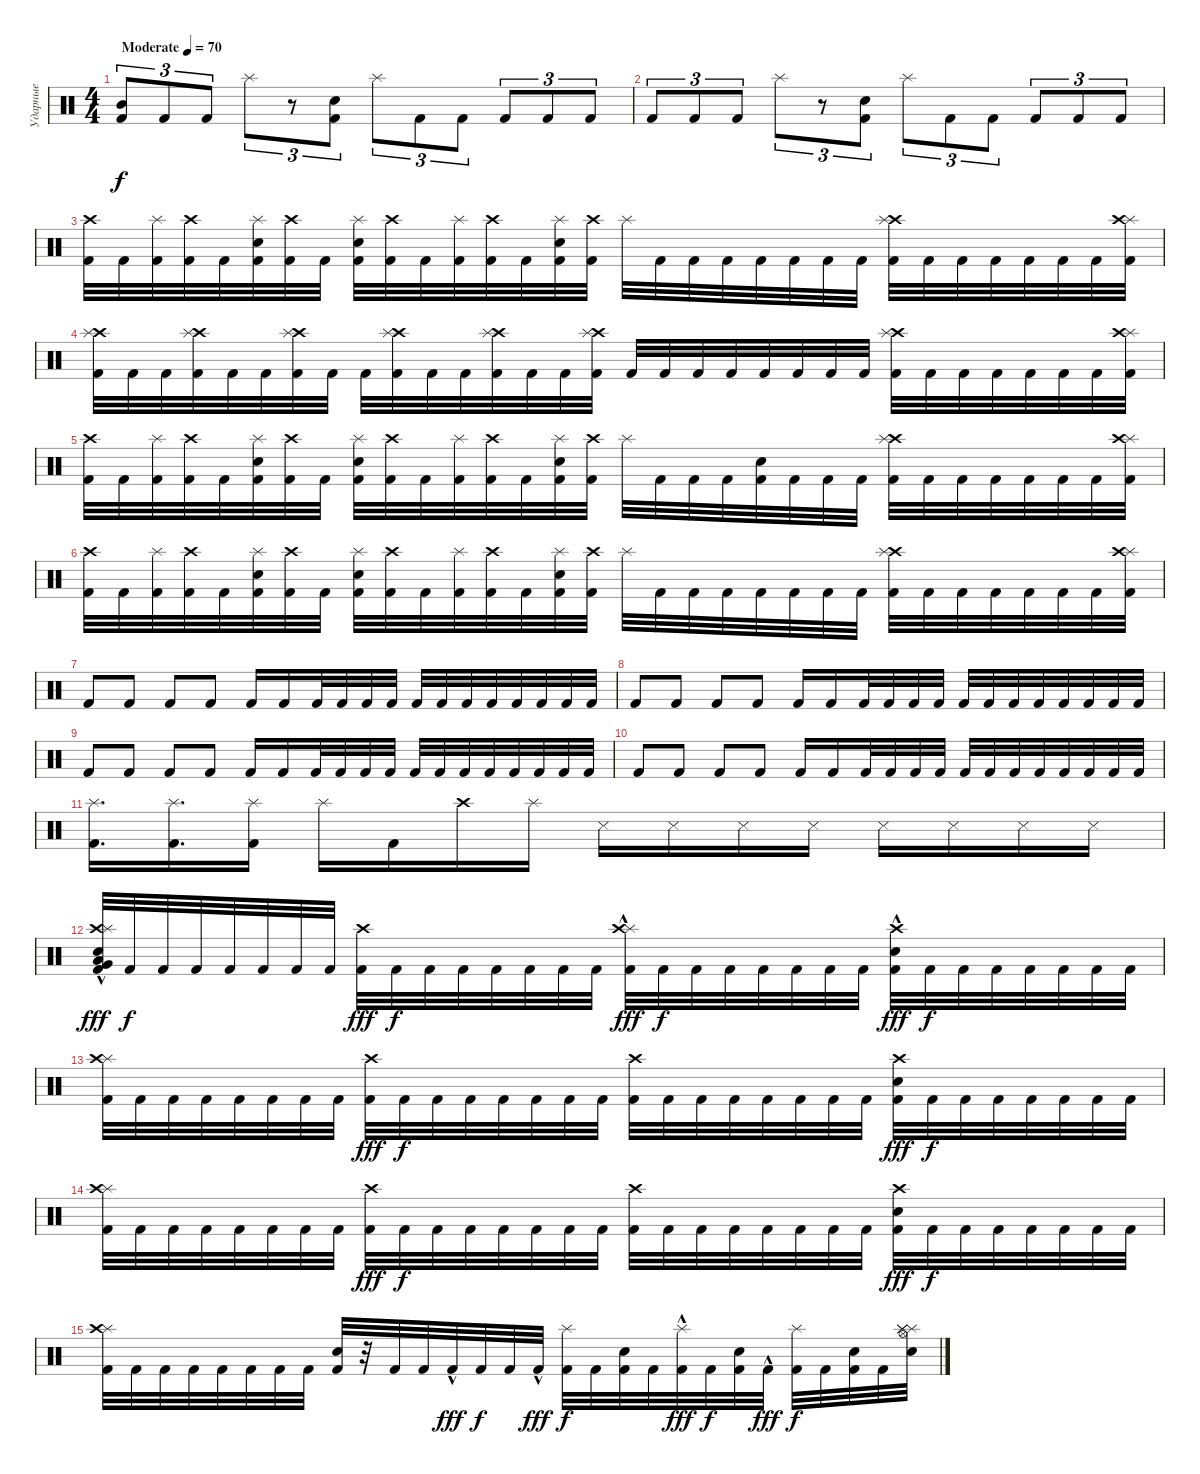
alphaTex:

\track ("Ударные" "Ударные") {instrument percussion}
\staff {score}
\articulation defaults
\ts (4 4)
\tempo (70 "Moderate")
\clef neutral
\ks c
("Mid Tom (hit)" "Kick (hit) 2").8{tu (3 2) dy f} "Kick (hit) 2".8{tu (3 2)} "Kick (hit) 2".8{tu (3 2)} "Splash (hit)".8{tu (3 2)} r.8{tu (3 2)} ("Snare (hit) 2" "Kick (hit) 2").8{tu (3 2)} "Splash (hit)".8{tu (3 2)} "Kick (hit) 2".8{tu (3 2)} "Kick (hit) 2".8{tu (3 2)} "Kick (hit) 2".8{tu (3 2)} "Kick (hit) 2".8{tu (3 2)} "Kick (hit) 2".8{tu (3 2)} |
"Kick (hit) 2".8{tu (3 2)} "Kick (hit) 2".8{tu (3 2)} "Kick (hit) 2".8{tu (3 2)} "Splash (hit)".8{tu (3 2)} r.8{tu (3 2)} ("Snare (hit) 2" "Kick (hit) 2").8{tu (3 2)} "Splash (hit)".8{tu (3 2)} "Kick (hit) 2".8{tu (3 2)} "Kick (hit) 2".8{tu (3 2)} "Kick (hit) 2".8{tu (3 2)} "Kick (hit) 2".8{tu (3 2)} "Kick (hit) 2".8{tu (3 2)} |
("Crash high (hit)" "Kick (hit) 2").32 "Kick (hit) 2".32 ("Splash (hit)" "Kick (hit) 2").32 ("Crash high (hit)" "Kick (hit) 2").32 "Kick (hit) 2".32 ("Splash (hit)" "Snare (hit) 2" "Kick (hit) 2").32 ("Crash high (hit)" "Kick (hit) 2").32 "Kick (hit) 2".32 ("Splash (hit)" "Snare (hit) 2" "Kick (hit) 2").32 ("Crash high (hit)" "Kick (hit) 2").32 "Kick (hit) 2".32 ("Splash (hit)" "Kick (hit) 2").32 ("Crash high (hit)" "Kick (hit) 2").32 "Kick (hit) 2".32 ("Splash (hit)" "Snare (hit) 2" "Kick (hit) 2").32 ("Crash high (hit)" "Kick (hit) 2").32 "Splash (hit)".32 "Kick (hit) 2".32 "Kick (hit) 2".32 "Kick (hit) 2".32 "Kick (hit) 2".32 "Kick (hit) 2".32 "Kick (hit) 2".32 "Kick (hit) 2".32 ("Crash high (hit)" "Splash (hit)" "Kick (hit) 2").32 "Kick (hit) 2".32 "Kick (hit) 2".32 "Kick (hit) 2".32 "Kick (hit) 2".32 "Kick (hit) 2".32 "Kick (hit) 2".32 ("Splash (hit)" "Crash high (hit)" "Kick (hit) 2").32 |
("Crash high (hit)" "Splash (hit)" "Kick (hit) 2").32 "Kick (hit) 2".32 "Kick (hit) 2".32 ("Crash high (hit)" "Splash (hit)" "Kick (hit) 2").32 "Kick (hit) 2".32 "Kick (hit) 2".32 ("Crash high (hit)" "Splash (hit)" "Kick (hit) 2").32 "Kick (hit) 2".32 "Kick (hit) 2".32 ("Crash high (hit)" "Splash (hit)" "Kick (hit) 2").32 "Kick (hit) 2".32 "Kick (hit) 2".32 ("Crash high (hit)" "Splash (hit)" "Kick (hit) 2").32 "Kick (hit) 2".32 "Kick (hit) 2".32 ("Crash high (hit)" "Splash (hit)" "Kick (hit) 2").32 "Kick (hit) 2".32 "Kick (hit) 2".32 "Kick (hit) 2".32 "Kick (hit) 2".32 "Kick (hit) 2".32 "Kick (hit) 2".32 "Kick (hit) 2".32 "Kick (hit) 2".32 ("Crash high (hit)" "Splash (hit)" "Kick (hit) 2").32 "Kick (hit) 2".32 "Kick (hit) 2".32 "Kick (hit) 2".32 "Kick (hit) 2".32 "Kick (hit) 2".32 "Kick (hit) 2".32 ("Splash (hit)" "Crash high (hit)" "Kick (hit) 2").32 |
("Crash high (hit)" "Kick (hit) 2").32 "Kick (hit) 2".32 ("Splash (hit)" "Kick (hit) 2").32 ("Crash high (hit)" "Kick (hit) 2").32 "Kick (hit) 2".32 ("Splash (hit)" "Snare (hit) 2" "Kick (hit) 2").32 ("Crash high (hit)" "Kick (hit) 2").32 "Kick (hit) 2".32 ("Splash (hit)" "Snare (hit) 2" "Kick (hit) 2").32 ("Crash high (hit)" "Kick (hit) 2").32 "Kick (hit) 2".32 ("Splash (hit)" "Kick (hit) 2").32 ("Crash high (hit)" "Kick (hit) 2").32 "Kick (hit) 2".32 ("Splash (hit)" "Snare (hit) 2" "Kick (hit) 2").32 ("Crash high (hit)" "Kick (hit) 2").32 "Splash (hit)".32 "Kick (hit) 2".32 "Kick (hit) 2".32 "Kick (hit) 2".32 ("Snare (hit) 2" "Kick (hit) 2").32 "Kick (hit) 2".32 "Kick (hit) 2".32 "Kick (hit) 2".32 ("Crash high (hit)" "Splash (hit)" "Kick (hit) 2").32 "Kick (hit) 2".32 "Kick (hit) 2".32 "Kick (hit) 2".32 "Kick (hit) 2".32 "Kick (hit) 2".32 "Kick (hit) 2".32 ("Splash (hit)" "Crash high (hit)" "Kick (hit) 2").32 |
("Crash high (hit)" "Kick (hit) 2").32 "Kick (hit) 2".32 ("Splash (hit)" "Kick (hit) 2").32 ("Crash high (hit)" "Kick (hit) 2").32 "Kick (hit) 2".32 ("Splash (hit)" "Snare (hit) 2" "Kick (hit) 2").32 ("Crash high (hit)" "Kick (hit) 2").32 "Kick (hit) 2".32 ("Splash (hit)" "Snare (hit) 2" "Kick (hit) 2").32 ("Crash high (hit)" "Kick (hit) 2").32 "Kick (hit) 2".32 ("Splash (hit)" "Kick (hit) 2").32 ("Crash high (hit)" "Kick (hit) 2").32 "Kick (hit) 2".32 ("Splash (hit)" "Snare (hit) 2" "Kick (hit) 2").32 ("Crash high (hit)" "Kick (hit) 2").32 "Splash (hit)".32 "Kick (hit) 2".32 "Kick (hit) 2".32 "Kick (hit) 2".32 "Kick (hit) 2".32 "Kick (hit) 2".32 "Kick (hit) 2".32 "Kick (hit) 2".32 ("Crash high (hit)" "Splash (hit)" "Kick (hit) 2").32 "Kick (hit) 2".32 "Kick (hit) 2".32 "Kick (hit) 2".32 "Kick (hit) 2".32 "Kick (hit) 2".32 "Kick (hit) 2".32 ("Splash (hit)" "Crash high (hit)" "Kick (hit) 2").32 |
"Kick (hit) 2".8 "Kick (hit) 2".8 "Kick (hit) 2".8 "Kick (hit) 2".8 "Kick (hit) 2".16 "Kick (hit) 2".16 "Kick (hit) 2".32 "Kick (hit) 2".32 "Kick (hit) 2".32 "Kick (hit) 2".32 "Kick (hit) 2".32 "Kick (hit) 2".32 "Kick (hit) 2".32 "Kick (hit) 2".32 "Kick (hit) 2".32 "Kick (hit) 2".32 "Kick (hit) 2".32 "Kick (hit) 2".32 |
"Kick (hit) 2".8 "Kick (hit) 2".8 "Kick (hit) 2".8 "Kick (hit) 2".8 "Kick (hit) 2".16 "Kick (hit) 2".16 "Kick (hit) 2".32 "Kick (hit) 2".32 "Kick (hit) 2".32 "Kick (hit) 2".32 "Kick (hit) 2".32 "Kick (hit) 2".32 "Kick (hit) 2".32 "Kick (hit) 2".32 "Kick (hit) 2".32 "Kick (hit) 2".32 "Kick (hit) 2".32 "Kick (hit) 2".32 |
"Kick (hit) 2".8 "Kick (hit) 2".8 "Kick (hit) 2".8 "Kick (hit) 2".8 "Kick (hit) 2".16 "Kick (hit) 2".16 "Kick (hit) 2".32 "Kick (hit) 2".32 "Kick (hit) 2".32 "Kick (hit) 2".32 "Kick (hit) 2".32 "Kick (hit) 2".32 "Kick (hit) 2".32 "Kick (hit) 2".32 "Kick (hit) 2".32 "Kick (hit) 2".32 "Kick (hit) 2".32 "Kick (hit) 2".32 |
"Kick (hit) 2".8 "Kick (hit) 2".8 "Kick (hit) 2".8 "Kick (hit) 2".8 "Kick (hit) 2".16 "Kick (hit) 2".16 "Kick (hit) 2".32 "Kick (hit) 2".32 "Kick (hit) 2".32 "Kick (hit) 2".32 "Kick (hit) 2".32 "Kick (hit) 2".32 "Kick (hit) 2".32 "Kick (hit) 2".32 "Kick (hit) 2".32 "Kick (hit) 2".32 "Kick (hit) 2".32 "Kick (hit) 2".32 |
("Splash (hit)" "Kick (hit) 2").16{d} ("Splash (hit)" "Kick (hit) 2").16{d} ("Splash (hit)" "Kick (hit) 2").16 "Splash (hit)".16 "Kick (hit) 2".16 "Crash high (hit)".16 "Splash (hit)".16 "Metronome (hit)".16 "Metronome (hit)".16 "Metronome (hit)".16 "Metronome (hit)".16 "Metronome (hit)".16 "Metronome (hit)".16 "Metronome (hit)".16 "Metronome (hit)".16 |
("Crash high (hit)" "Splash (hit)" "Low Tom (hit)" "Electric Snare (hit)" "Very Low Tom (hit)" "Kick (hit) 2"{hac}).32{dy fff} "Kick (hit) 2".32{dy f} "Kick (hit) 2".32 "Kick (hit) 2".32 "Kick (hit) 2".32 "Kick (hit) 2".32 "Kick (hit) 2".32 "Kick (hit) 2".32 ("Crash high (hit)" "Kick (hit) 2").32{dy fff} "Kick (hit) 2".32{dy f} "Kick (hit) 2".32 "Kick (hit) 2".32 "Kick (hit) 2".32 "Kick (hit) 2".32 "Kick (hit) 2".32 "Kick (hit) 2".32 ("Splash (hit)" "Crash high (hit)"{hac} "Kick (hit) 2").32{dy fff} "Kick (hit) 2".32{dy f} "Kick (hit) 2".32 "Kick (hit) 2".32 "Kick (hit) 2".32 "Kick (hit) 2".32 "Kick (hit) 2".32 "Kick (hit) 2".32 ("Crash high (hit)" "Snare (hit) 2"{hac} "Kick (hit) 2").32{dy fff} "Kick (hit) 2".32{dy f} "Kick (hit) 2".32 "Kick (hit) 2".32 "Kick (hit) 2".32 "Kick (hit) 2".32 "Kick (hit) 2".32 "Kick (hit) 2".32 |
("Splash (hit)" "Crash high (hit)" "Kick (hit) 2").32 "Kick (hit) 2".32 "Kick (hit) 2".32 "Kick (hit) 2".32 "Kick (hit) 2".32 "Kick (hit) 2".32 "Kick (hit) 2".32 "Kick (hit) 2".32 ("Crash high (hit)" "Kick (hit) 2").32{dy fff} "Kick (hit) 2".32{dy f} "Kick (hit) 2".32 "Kick (hit) 2".32 "Kick (hit) 2".32 "Kick (hit) 2".32 "Kick (hit) 2".32 "Kick (hit) 2".32 ("Crash high (hit)" "Kick (hit) 2").32 "Kick (hit) 2".32 "Kick (hit) 2".32 "Kick (hit) 2".32 "Kick (hit) 2".32 "Kick (hit) 2".32 "Kick (hit) 2".32 "Kick (hit) 2".32 ("Crash high (hit)" "Snare (hit) 2" "Kick (hit) 2").32{dy fff} "Kick (hit) 2".32{dy f} "Kick (hit) 2".32 "Kick (hit) 2".32 "Kick (hit) 2".32 "Kick (hit) 2".32 "Kick (hit) 2".32 "Kick (hit) 2".32 |
("Splash (hit)" "Crash high (hit)" "Kick (hit) 2").32 "Kick (hit) 2".32 "Kick (hit) 2".32 "Kick (hit) 2".32 "Kick (hit) 2".32 "Kick (hit) 2".32 "Kick (hit) 2".32 "Kick (hit) 2".32 ("Crash high (hit)" "Kick (hit) 2").32{dy fff} "Kick (hit) 2".32{dy f} "Kick (hit) 2".32 "Kick (hit) 2".32 "Kick (hit) 2".32 "Kick (hit) 2".32 "Kick (hit) 2".32 "Kick (hit) 2".32 ("Crash high (hit)" "Kick (hit) 2").32 "Kick (hit) 2".32 "Kick (hit) 2".32 "Kick (hit) 2".32 "Kick (hit) 2".32 "Kick (hit) 2".32 "Kick (hit) 2".32 "Kick (hit) 2".32 ("Crash high (hit)" "Snare (hit) 2" "Kick (hit) 2").32{dy fff} "Kick (hit) 2".32{dy f} "Kick (hit) 2".32 "Kick (hit) 2".32 "Kick (hit) 2".32 "Kick (hit) 2".32 "Kick (hit) 2".32 "Kick (hit) 2".32 |
("Splash (hit)" "Crash high (hit)" "Kick (hit) 2").32 "Kick (hit) 2".32 "Kick (hit) 2".32 "Kick (hit) 2".32 "Kick (hit) 2".32 "Kick (hit) 2".32 "Kick (hit) 2".32 "Kick (hit) 2".32 ("Snare (hit) 2" "Kick (hit) 2").32 r.32 "Kick (hit) 2".32 "Kick (hit) 2".32 "Kick (hit) 2"{hac}.32{dy fff} "Kick (hit) 2".32{dy f} "Kick (hit) 2".32 "Kick (hit) 2"{hac}.32{dy fff} ("Splash (hit)" "Kick (hit) 2").32{dy f} "Kick (hit) 2".32 ("Snare (hit) 2" "Kick (hit) 2").32 "Kick (hit) 2".32 ("Splash (hit)" "Kick (hit) 2"{hac}).32{dy fff} "Kick (hit) 2".32{dy f} ("Snare (hit) 2" "Kick (hit) 2").32 "Kick (hit) 2"{hac}.32{dy fff} ("Splash (hit)" "Kick (hit) 2").32{dy f} "Kick (hit) 2".32 ("Snare (hit) 2" "Kick (hit) 2").32 "Kick (hit) 2".32 ("Snare (hit) 2" "Hi-Hat (open)" "Splash (hit)" "Splash (hit)" "Splash (hit)").32
